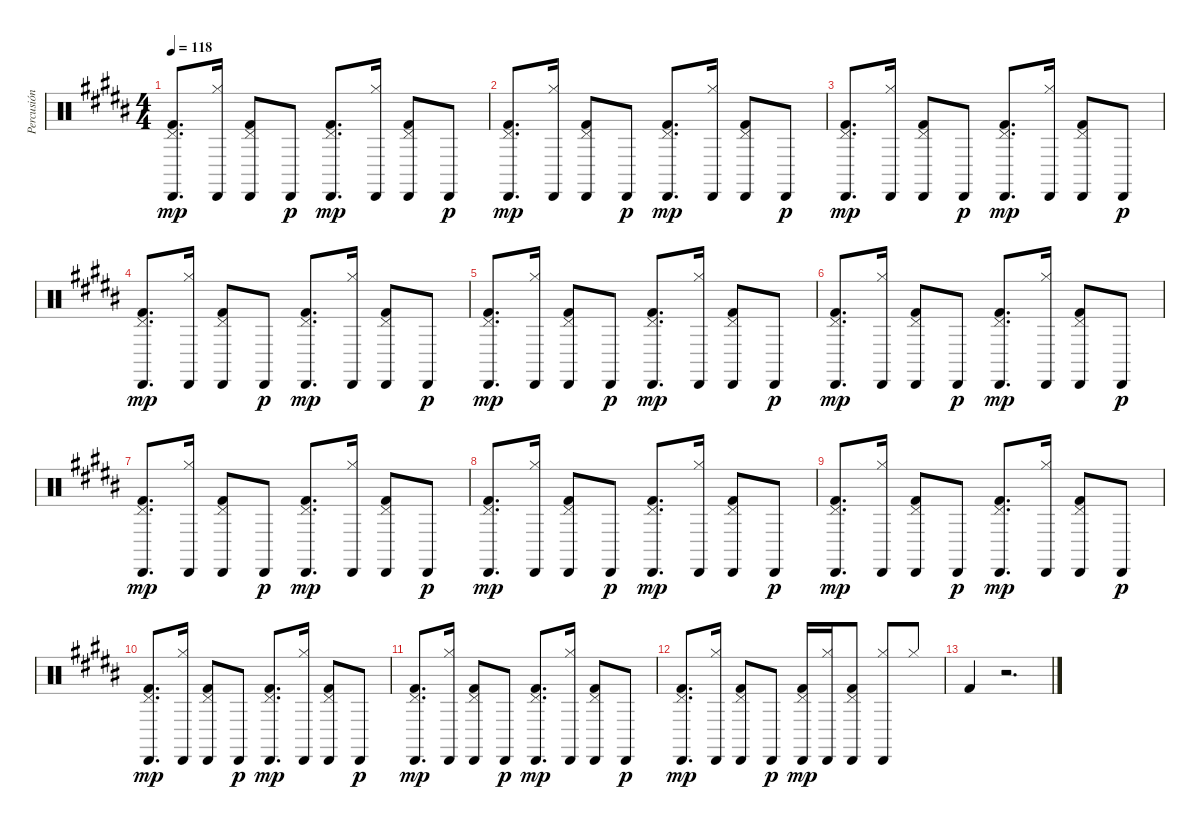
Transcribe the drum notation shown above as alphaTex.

\track ("Percusión" "Percusión") {instrument percussion}
\staff {score}
\articulation defaults
\ts (4 4)
\tempo 118
\clef neutral
\ks b
("Cabasa (hit)" "Pedal Hi-Hat (hit)" "Kick (hit) 2").8{d dy mp} ("Cabasa (hit)" "Hi-Hat (closed)").16 ("Cabasa (hit)" "Pedal Hi-Hat (hit)" "Kick (hit) 2").8 "Cabasa (hit)".8{dy p} ("Cabasa (hit)" "Pedal Hi-Hat (hit)" "Kick (hit) 2").8{d dy mp} ("Cabasa (hit)" "Hi-Hat (closed)").16 ("Cabasa (hit)" "Pedal Hi-Hat (hit)" "Kick (hit) 2").8 "Cabasa (hit)".8{dy p} |
("Cabasa (hit)" "Pedal Hi-Hat (hit)" "Kick (hit) 2").8{d dy mp} ("Cabasa (hit)" "Hi-Hat (closed)").16 ("Cabasa (hit)" "Pedal Hi-Hat (hit)" "Kick (hit) 2").8 "Cabasa (hit)".8{dy p} ("Cabasa (hit)" "Pedal Hi-Hat (hit)" "Kick (hit) 2").8{d dy mp} ("Cabasa (hit)" "Hi-Hat (closed)").16 ("Cabasa (hit)" "Pedal Hi-Hat (hit)" "Kick (hit) 2").8 "Cabasa (hit)".8{dy p} |
("Cabasa (hit)" "Pedal Hi-Hat (hit)" "Kick (hit) 2").8{d dy mp} ("Cabasa (hit)" "Hi-Hat (closed)").16 ("Cabasa (hit)" "Pedal Hi-Hat (hit)" "Kick (hit) 2").8 "Cabasa (hit)".8{dy p} ("Cabasa (hit)" "Pedal Hi-Hat (hit)" "Kick (hit) 2").8{d dy mp} ("Cabasa (hit)" "Hi-Hat (closed)").16 ("Cabasa (hit)" "Pedal Hi-Hat (hit)" "Kick (hit) 2").8 "Cabasa (hit)".8{dy p} |
("Cabasa (hit)" "Pedal Hi-Hat (hit)" "Kick (hit) 2").8{d dy mp} ("Cabasa (hit)" "Hi-Hat (closed)").16 ("Cabasa (hit)" "Pedal Hi-Hat (hit)" "Kick (hit) 2").8 "Cabasa (hit)".8{dy p} ("Cabasa (hit)" "Pedal Hi-Hat (hit)" "Kick (hit) 2").8{d dy mp} ("Cabasa (hit)" "Hi-Hat (closed)").16 ("Cabasa (hit)" "Pedal Hi-Hat (hit)" "Kick (hit) 2").8 "Cabasa (hit)".8{dy p} |
("Cabasa (hit)" "Pedal Hi-Hat (hit)" "Kick (hit) 2").8{d dy mp} ("Cabasa (hit)" "Hi-Hat (closed)").16 ("Cabasa (hit)" "Pedal Hi-Hat (hit)" "Kick (hit) 2").8 "Cabasa (hit)".8{dy p} ("Cabasa (hit)" "Pedal Hi-Hat (hit)" "Kick (hit) 2").8{d dy mp} ("Cabasa (hit)" "Hi-Hat (closed)").16 ("Cabasa (hit)" "Pedal Hi-Hat (hit)" "Kick (hit) 2").8 "Cabasa (hit)".8{dy p} |
("Cabasa (hit)" "Pedal Hi-Hat (hit)" "Kick (hit) 2").8{d dy mp} ("Cabasa (hit)" "Hi-Hat (closed)").16 ("Cabasa (hit)" "Pedal Hi-Hat (hit)" "Kick (hit) 2").8 "Cabasa (hit)".8{dy p} ("Cabasa (hit)" "Pedal Hi-Hat (hit)" "Kick (hit) 2").8{d dy mp} ("Cabasa (hit)" "Hi-Hat (closed)").16 ("Cabasa (hit)" "Pedal Hi-Hat (hit)" "Kick (hit) 2").8 "Cabasa (hit)".8{dy p} |
("Cabasa (hit)" "Pedal Hi-Hat (hit)" "Kick (hit) 2").8{d dy mp} ("Cabasa (hit)" "Hi-Hat (closed)").16 ("Cabasa (hit)" "Pedal Hi-Hat (hit)" "Kick (hit) 2").8 "Cabasa (hit)".8{dy p} ("Cabasa (hit)" "Pedal Hi-Hat (hit)" "Kick (hit) 2").8{d dy mp} ("Cabasa (hit)" "Hi-Hat (closed)").16 ("Cabasa (hit)" "Pedal Hi-Hat (hit)" "Kick (hit) 2").8 "Cabasa (hit)".8{dy p} |
("Cabasa (hit)" "Pedal Hi-Hat (hit)" "Kick (hit) 2").8{d dy mp} ("Cabasa (hit)" "Hi-Hat (closed)").16 ("Cabasa (hit)" "Pedal Hi-Hat (hit)" "Kick (hit) 2").8 "Cabasa (hit)".8{dy p} ("Cabasa (hit)" "Pedal Hi-Hat (hit)" "Kick (hit) 2").8{d dy mp} ("Cabasa (hit)" "Hi-Hat (closed)").16 ("Cabasa (hit)" "Pedal Hi-Hat (hit)" "Kick (hit) 2").8 "Cabasa (hit)".8{dy p} |
("Cabasa (hit)" "Pedal Hi-Hat (hit)" "Kick (hit) 2").8{d dy mp} ("Cabasa (hit)" "Hi-Hat (closed)").16 ("Cabasa (hit)" "Pedal Hi-Hat (hit)" "Kick (hit) 2").8 "Cabasa (hit)".8{dy p} ("Cabasa (hit)" "Pedal Hi-Hat (hit)" "Kick (hit) 2").8{d dy mp} ("Cabasa (hit)" "Hi-Hat (closed)").16 ("Cabasa (hit)" "Pedal Hi-Hat (hit)" "Kick (hit) 2").8 "Cabasa (hit)".8{dy p} |
("Cabasa (hit)" "Pedal Hi-Hat (hit)" "Kick (hit) 2").8{d dy mp} ("Cabasa (hit)" "Hi-Hat (closed)").16 ("Cabasa (hit)" "Pedal Hi-Hat (hit)" "Kick (hit) 2").8 "Cabasa (hit)".8{dy p} ("Cabasa (hit)" "Pedal Hi-Hat (hit)" "Kick (hit) 2").8{d dy mp} ("Cabasa (hit)" "Hi-Hat (closed)").16 ("Cabasa (hit)" "Pedal Hi-Hat (hit)" "Kick (hit) 2").8 "Cabasa (hit)".8{dy p} |
("Cabasa (hit)" "Pedal Hi-Hat (hit)" "Kick (hit) 2").8{d dy mp} ("Cabasa (hit)" "Hi-Hat (closed)").16 ("Cabasa (hit)" "Pedal Hi-Hat (hit)" "Kick (hit) 2").8 "Cabasa (hit)".8{dy p} ("Cabasa (hit)" "Pedal Hi-Hat (hit)" "Kick (hit) 2").8{d dy mp} ("Cabasa (hit)" "Hi-Hat (closed)").16 ("Cabasa (hit)" "Pedal Hi-Hat (hit)" "Kick (hit) 2").8 "Cabasa (hit)".8{dy p} |
("Cabasa (hit)" "Pedal Hi-Hat (hit)" "Kick (hit) 2").8{d dy mp} ("Cabasa (hit)" "Hi-Hat (closed)").16 ("Cabasa (hit)" "Pedal Hi-Hat (hit)" "Kick (hit) 2").8 "Cabasa (hit)".8{dy p} ("Cabasa (hit)" "Pedal Hi-Hat (hit)" "Kick (hit) 2").16{dy mp} ("Cabasa (hit)" "Hi-Hat (closed)").16 ("Cabasa (hit)" "Pedal Hi-Hat (hit)" "Kick (hit) 2").8 ("Cabasa (hit)" "Hi-Hat (closed)").8 "Hi-Hat (closed)".8 |
"Kick (hit) 2".4 r.2{d}
